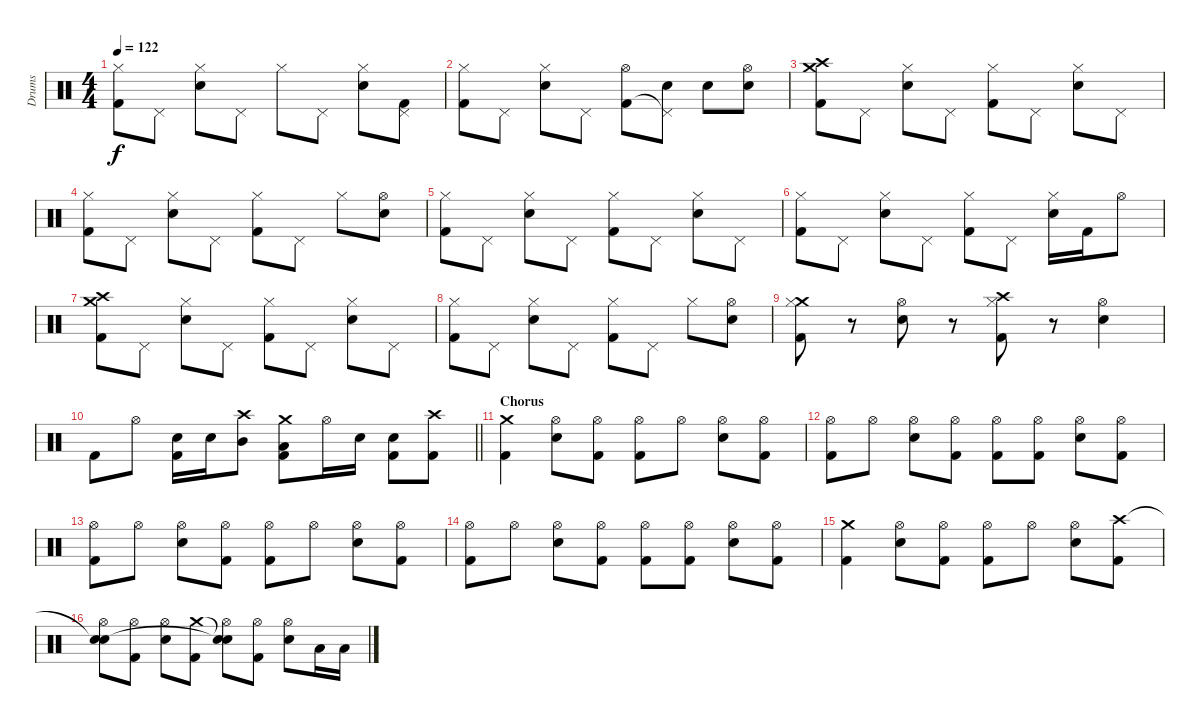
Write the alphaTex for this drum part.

\track ("Drums" "Drums") {instrument percussion}
\staff {score}
\articulation defaults
\ts (4 4)
\tempo 122
\clef neutral
\ks c
("Hi-Hat (closed)" "Kick (hit) 2").8{dy f} "Pedal Hi-Hat (hit)".8 ("Snare (hit) 2" "Hi-Hat (closed)").8 "Pedal Hi-Hat (hit)".8 "Hi-Hat (closed)".8 "Pedal Hi-Hat (hit)".8 ("Snare (hit) 2" "Hi-Hat (closed)").8 ("Pedal Hi-Hat (hit)" "Kick (hit) 2").8 |
("Hi-Hat (closed)" "Kick (hit) 2").8 "Pedal Hi-Hat (hit)".8 ("Snare (hit) 2" "Hi-Hat (closed)").8 "Pedal Hi-Hat (hit)".8 ("Hi-Hat (open)" "Kick (hit) 2").8 ("Snare (hit) 2" "Pedal Hi-Hat (hit)"{t}).8 "Snare (hit) 2".8 ("Snare (hit) 2" "Hi-Hat (open)").8 |
("Crash medium (hit)" "Crash high (hit)" "Kick (hit) 2").8 "Pedal Hi-Hat (hit)".8 ("Snare (hit) 2" "Hi-Hat (closed)").8 "Pedal Hi-Hat (hit)".8 ("Hi-Hat (closed)" "Kick (hit) 2").8 "Pedal Hi-Hat (hit)".8 ("Snare (hit) 2" "Hi-Hat (closed)").8 "Pedal Hi-Hat (hit)".8 |
("Hi-Hat (closed)" "Kick (hit) 2").8 "Pedal Hi-Hat (hit)".8 ("Snare (hit) 2" "Hi-Hat (closed)").8 "Pedal Hi-Hat (hit)".8 ("Hi-Hat (closed)" "Kick (hit) 2").8 "Pedal Hi-Hat (hit)".8 "Hi-Hat (closed)".8 ("Snare (hit) 2" "Hi-Hat (open)").8 |
("Hi-Hat (closed)" "Kick (hit) 2").8 "Pedal Hi-Hat (hit)".8 ("Snare (hit) 2" "Hi-Hat (closed)").8 "Pedal Hi-Hat (hit)".8 ("Hi-Hat (closed)" "Kick (hit) 2").8 "Pedal Hi-Hat (hit)".8 ("Snare (hit) 2" "Hi-Hat (closed)").8 "Pedal Hi-Hat (hit)".8 |
("Hi-Hat (closed)" "Kick (hit) 2").8 "Pedal Hi-Hat (hit)".8 ("Snare (hit) 2" "Hi-Hat (closed)").8 "Pedal Hi-Hat (hit)".8 ("Hi-Hat (closed)" "Kick (hit) 2").8 "Pedal Hi-Hat (hit)".8 ("Snare (hit) 2" "Hi-Hat (closed)").16 "Kick (hit) 2".16 "Hi-Hat (open)".8 |
("Crash medium (hit)" "Crash high (hit)" "Kick (hit) 2").8 "Pedal Hi-Hat (hit)".8 ("Snare (hit) 2" "Hi-Hat (closed)").8 "Pedal Hi-Hat (hit)".8 ("Hi-Hat (closed)" "Kick (hit) 2").8 "Pedal Hi-Hat (hit)".8 ("Snare (hit) 2" "Hi-Hat (closed)").8 "Pedal Hi-Hat (hit)".8 |
("Hi-Hat (closed)" "Kick (hit) 2").8 "Pedal Hi-Hat (hit)".8 ("Snare (hit) 2" "Hi-Hat (closed)").8 "Pedal Hi-Hat (hit)".8 ("Hi-Hat (closed)" "Kick (hit) 2").8 "Pedal Hi-Hat (hit)".8 "Hi-Hat (closed)".8 ("Snare (hit) 2" "Hi-Hat (open)").8 |
("Crash medium (hit)" "Hi-Hat (closed)" "Kick (hit) 2").8 r.8 ("Snare (hit) 2" "Hi-Hat (open)").8 r.8 ("Crash high (hit)" "Hi-Hat (closed)" "Kick (hit) 2").8 r.8 ("Snare (hit) 2" "Hi-Hat (open)").4 |
\barLineRight lightlight "Kick (hit) 2".8 "Hi-Hat (open)".8
("Snare (hit) 2" "Kick (hit) 2").16 "Snare (hit) 2".16 ("Crash high (hit)" "Mid Tom (hit)").8 ("Crash medium (hit)" "Low Tom (hit)" "Kick (hit) 2").8 "Hi-Hat (open)".16 "Snare (hit) 2".16 ("Snare (hit) 2" "Kick (hit) 2").8 ("Crash high (hit)" "Kick (hit) 2").8 |
\section ("" "Chorus")
("Crash medium (hit)" "Kick (hit) 2").4 ("Snare (hit) 2" "Hi-Hat (open)").8 ("Hi-Hat (open)" "Kick (hit) 2").8 ("Hi-Hat (open)" "Kick (hit) 2").8 "Hi-Hat (open)".8 ("Snare (hit) 2" "Hi-Hat (open)").8 ("Hi-Hat (open)" "Kick (hit) 2").8 |
("Hi-Hat (open)" "Kick (hit) 2").8 "Hi-Hat (open)".8 ("Snare (hit) 2" "Hi-Hat (open)").8 ("Hi-Hat (open)" "Kick (hit) 2").8 ("Hi-Hat (open)" "Kick (hit) 2").8 ("Hi-Hat (open)" "Kick (hit) 2").8 ("Snare (hit) 2" "Hi-Hat (open)").8 ("Hi-Hat (open)" "Kick (hit) 2").8 |
("Hi-Hat (open)" "Kick (hit) 2").8 "Hi-Hat (open)".8 ("Snare (hit) 2" "Hi-Hat (open)").8 ("Hi-Hat (open)" "Kick (hit) 2").8 ("Hi-Hat (open)" "Kick (hit) 2").8 "Hi-Hat (open)".8 ("Snare (hit) 2" "Hi-Hat (open)").8 ("Hi-Hat (open)" "Kick (hit) 2").8 |
("Hi-Hat (open)" "Kick (hit) 2").8 "Hi-Hat (open)".8 ("Snare (hit) 2" "Hi-Hat (open)").8 ("Hi-Hat (open)" "Kick (hit) 2").8 ("Hi-Hat (open)" "Kick (hit) 2").8 ("Hi-Hat (open)" "Kick (hit) 2").8 ("Snare (hit) 2" "Hi-Hat (open)").8 ("Hi-Hat (open)" "Kick (hit) 2").8 |
("Crash medium (hit)" "Kick (hit) 2").4 ("Snare (hit) 2" "Hi-Hat (open)").8 ("Hi-Hat (open)" "Kick (hit) 2").8 ("Hi-Hat (open)" "Kick (hit) 2").8 "Hi-Hat (open)".8 ("Snare (hit) 2" "Hi-Hat (open)").8 ("Crash high (hit)" "Kick (hit) 2").8 |
("Snare (hit)"{t} "Hi-Hat (open)" "Snare (hit)").8 ("Hi-Hat (open)" "Kick (hit) 2").8 ("Snare (hit) 2" "Hi-Hat (open)").8 ("Crash medium (hit)" "Kick (hit) 2").8 ("Snare (hit)"{t} "Hi-Hat (open)" "Snare (hit)"{t}).8 ("Hi-Hat (open)" "Kick (hit) 2").8 ("Snare (hit) 2" "Hi-Hat (open)").8 "Low Tom (hit)".16 "Low Tom (hit)".16
